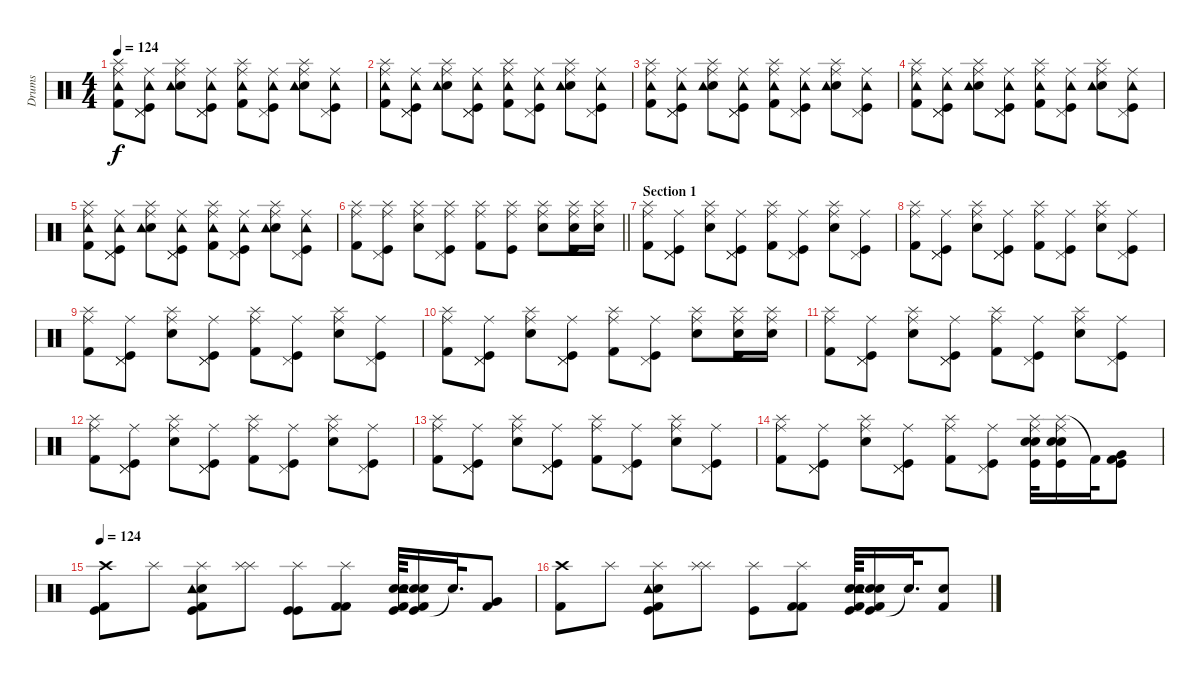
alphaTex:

\track ("Drums " "Drums ") {instrument percussion}
\staff {score}
\articulation defaults
\ts (4 4)
\tempo 124
\clef neutral
\ks c
("Splash (hit)" "Ride (middle)" "Kick (hit) 2" "Tambourine (hit)").8{dy f} ("Pedal Hi-Hat (hit)" "Ride (middle)" "Kick (hit)" "Pedal Hi-Hat (hit)" "Tambourine (hit)").8 ("Splash (hit)" "Ride (middle)" "Electric Snare (hit)" "Tambourine (hit)").8 ("Pedal Hi-Hat (hit)" "Ride (middle)" "Kick (hit)" "Pedal Hi-Hat (hit)" "Tambourine (hit)").8 ("Splash (hit)" "Ride (middle)" "Kick (hit) 2" "Tambourine (hit)").8 ("Pedal Hi-Hat (hit)" "Ride (middle)" "Kick (hit)" "Tambourine (hit)").8 ("Splash (hit)" "Ride (middle)" "Electric Snare (hit)" "Tambourine (hit)").8 ("Pedal Hi-Hat (hit)" "Ride (middle)" "Kick (hit)" "Tambourine (hit)").8 |
("Splash (hit)" "Ride (middle)" "Kick (hit) 2" "Tambourine (hit)").8 ("Pedal Hi-Hat (hit)" "Ride (middle)" "Kick (hit)" "Pedal Hi-Hat (hit)" "Tambourine (hit)").8 ("Splash (hit)" "Ride (middle)" "Electric Snare (hit)" "Tambourine (hit)").8 ("Pedal Hi-Hat (hit)" "Ride (middle)" "Kick (hit)" "Pedal Hi-Hat (hit)" "Tambourine (hit)").8 ("Splash (hit)" "Ride (middle)" "Kick (hit) 2" "Tambourine (hit)").8 ("Pedal Hi-Hat (hit)" "Ride (middle)" "Kick (hit)" "Tambourine (hit)").8 ("Splash (hit)" "Ride (middle)" "Electric Snare (hit)" "Tambourine (hit)").8 ("Pedal Hi-Hat (hit)" "Ride (middle)" "Kick (hit)" "Tambourine (hit)").8 |
("Splash (hit)" "Ride (middle)" "Kick (hit) 2" "Tambourine (hit)").8 ("Pedal Hi-Hat (hit)" "Ride (middle)" "Kick (hit)" "Pedal Hi-Hat (hit)" "Tambourine (hit)").8 ("Splash (hit)" "Ride (middle)" "Electric Snare (hit)" "Tambourine (hit)").8 ("Pedal Hi-Hat (hit)" "Ride (middle)" "Kick (hit)" "Pedal Hi-Hat (hit)" "Tambourine (hit)").8 ("Splash (hit)" "Ride (middle)" "Kick (hit) 2" "Tambourine (hit)").8 ("Pedal Hi-Hat (hit)" "Ride (middle)" "Kick (hit)" "Tambourine (hit)").8 ("Splash (hit)" "Ride (middle)" "Electric Snare (hit)" "Tambourine (hit)").8 ("Pedal Hi-Hat (hit)" "Ride (middle)" "Kick (hit)" "Tambourine (hit)").8 |
("Splash (hit)" "Ride (middle)" "Kick (hit) 2" "Tambourine (hit)").8 ("Pedal Hi-Hat (hit)" "Ride (middle)" "Kick (hit)" "Pedal Hi-Hat (hit)" "Tambourine (hit)").8 ("Splash (hit)" "Ride (middle)" "Electric Snare (hit)" "Tambourine (hit)").8 ("Pedal Hi-Hat (hit)" "Ride (middle)" "Kick (hit)" "Pedal Hi-Hat (hit)" "Tambourine (hit)").8 ("Splash (hit)" "Ride (middle)" "Kick (hit) 2" "Tambourine (hit)").8 ("Pedal Hi-Hat (hit)" "Ride (middle)" "Kick (hit)" "Tambourine (hit)").8 ("Splash (hit)" "Ride (middle)" "Electric Snare (hit)" "Tambourine (hit)").8 ("Pedal Hi-Hat (hit)" "Ride (middle)" "Kick (hit)" "Tambourine (hit)").8 |
("Splash (hit)" "Ride (middle)" "Kick (hit) 2" "Tambourine (hit)").8 ("Pedal Hi-Hat (hit)" "Ride (middle)" "Kick (hit)" "Pedal Hi-Hat (hit)" "Tambourine (hit)").8 ("Splash (hit)" "Ride (middle)" "Electric Snare (hit)" "Tambourine (hit)").8 ("Pedal Hi-Hat (hit)" "Ride (middle)" "Kick (hit)" "Pedal Hi-Hat (hit)" "Tambourine (hit)").8 ("Splash (hit)" "Ride (middle)" "Kick (hit) 2" "Tambourine (hit)").8 ("Pedal Hi-Hat (hit)" "Ride (middle)" "Kick (hit)" "Tambourine (hit)").8 ("Splash (hit)" "Ride (middle)" "Electric Snare (hit)" "Tambourine (hit)").8 ("Pedal Hi-Hat (hit)" "Ride (middle)" "Kick (hit)" "Tambourine (hit)").8 |
\barLineRight lightlight
("Splash (hit)" "Ride (middle)" "Kick (hit) 2").8 ("Splash (hit)" "Ride (middle)" "Kick (hit)" "Pedal Hi-Hat (hit)").8 ("Splash (hit)" "Ride (middle)" "Electric Snare (hit)").8 ("Splash (hit)" "Ride (middle)" "Kick (hit)" "Pedal Hi-Hat (hit)").8 ("Splash (hit)" "Ride (middle)" "Kick (hit) 2").8 ("Splash (hit)" "Ride (middle)" "Kick (hit)").8 ("Splash (hit)" "Ride (middle)" "Electric Snare (hit)").8 ("Splash (hit)" "Ride (middle)" "Kick (hit)" "Electric Snare (hit)").16 ("Splash (hit)" "Ride (middle)" "Electric Snare (hit)").16 |
\section ("" "Section 1")
("Splash (hit)" "Ride (middle)" "Kick (hit) 2").8 ("Pedal Hi-Hat (hit)" "Ride (middle)" "Kick (hit)" "Pedal Hi-Hat (hit)").8 ("Splash (hit)" "Ride (middle)" "Electric Snare (hit)").8 ("Pedal Hi-Hat (hit)" "Ride (middle)" "Kick (hit)" "Pedal Hi-Hat (hit)").8 ("Splash (hit)" "Ride (middle)" "Kick (hit) 2").8 ("Pedal Hi-Hat (hit)" "Ride (middle)" "Kick (hit)").8 ("Splash (hit)" "Ride (middle)" "Electric Snare (hit)").8 ("Pedal Hi-Hat (hit)" "Ride (middle)" "Kick (hit)").8 |
("Splash (hit)" "Ride (middle)" "Kick (hit) 2").8 ("Pedal Hi-Hat (hit)" "Ride (middle)" "Kick (hit)" "Pedal Hi-Hat (hit)").8 ("Splash (hit)" "Ride (middle)" "Electric Snare (hit)").8 ("Pedal Hi-Hat (hit)" "Ride (middle)" "Kick (hit)" "Pedal Hi-Hat (hit)").8 ("Splash (hit)" "Ride (middle)" "Kick (hit) 2").8 ("Pedal Hi-Hat (hit)" "Ride (middle)" "Kick (hit)").8 ("Splash (hit)" "Ride (middle)" "Electric Snare (hit)").8 ("Pedal Hi-Hat (hit)" "Ride (middle)" "Kick (hit)").8 |
("Splash (hit)" "Ride (middle)" "Kick (hit) 2").8 ("Pedal Hi-Hat (hit)" "Ride (middle)" "Kick (hit)" "Pedal Hi-Hat (hit)").8 ("Splash (hit)" "Ride (middle)" "Electric Snare (hit)").8 ("Pedal Hi-Hat (hit)" "Ride (middle)" "Kick (hit)" "Pedal Hi-Hat (hit)").8 ("Splash (hit)" "Ride (middle)" "Kick (hit) 2").8 ("Pedal Hi-Hat (hit)" "Ride (middle)" "Kick (hit)").8 ("Splash (hit)" "Ride (middle)" "Electric Snare (hit)").8 ("Pedal Hi-Hat (hit)" "Ride (middle)" "Kick (hit)").8 |
("Splash (hit)" "Ride (middle)" "Kick (hit) 2").8 ("Pedal Hi-Hat (hit)" "Ride (middle)" "Kick (hit)" "Pedal Hi-Hat (hit)").8 ("Splash (hit)" "Ride (middle)" "Electric Snare (hit)").8 ("Pedal Hi-Hat (hit)" "Ride (middle)" "Kick (hit)" "Pedal Hi-Hat (hit)").8 ("Splash (hit)" "Ride (middle)" "Kick (hit) 2").8 ("Pedal Hi-Hat (hit)" "Ride (middle)" "Kick (hit)").8 ("Splash (hit)" "Ride (middle)" "Electric Snare (hit)").8 ("Splash (hit)" "Ride (middle)" "Kick (hit)" "Electric Snare (hit)").16 ("Splash (hit)" "Ride (middle)" "Electric Snare (hit)").16 |
("Splash (hit)" "Ride (middle)" "Kick (hit) 2").8 ("Pedal Hi-Hat (hit)" "Ride (middle)" "Kick (hit)" "Pedal Hi-Hat (hit)").8 ("Splash (hit)" "Ride (middle)" "Electric Snare (hit)").8 ("Pedal Hi-Hat (hit)" "Ride (middle)" "Kick (hit)" "Pedal Hi-Hat (hit)").8 ("Splash (hit)" "Ride (middle)" "Kick (hit) 2").8 ("Pedal Hi-Hat (hit)" "Ride (middle)" "Kick (hit)").8 ("Splash (hit)" "Ride (middle)" "Electric Snare (hit)").8 ("Pedal Hi-Hat (hit)" "Ride (middle)" "Kick (hit)").8 |
("Splash (hit)" "Ride (middle)" "Kick (hit) 2").8 ("Pedal Hi-Hat (hit)" "Ride (middle)" "Kick (hit)" "Pedal Hi-Hat (hit)").8 ("Splash (hit)" "Ride (middle)" "Electric Snare (hit)").8 ("Pedal Hi-Hat (hit)" "Ride (middle)" "Kick (hit)" "Pedal Hi-Hat (hit)").8 ("Splash (hit)" "Ride (middle)" "Kick (hit) 2").8 ("Pedal Hi-Hat (hit)" "Ride (middle)" "Kick (hit)").8 ("Splash (hit)" "Ride (middle)" "Electric Snare (hit)").8 ("Pedal Hi-Hat (hit)" "Ride (middle)" "Kick (hit)").8 |
("Splash (hit)" "Ride (middle)" "Kick (hit) 2").8 ("Pedal Hi-Hat (hit)" "Ride (middle)" "Kick (hit)" "Pedal Hi-Hat (hit)").8 ("Splash (hit)" "Ride (middle)" "Electric Snare (hit)").8 ("Pedal Hi-Hat (hit)" "Ride (middle)" "Kick (hit)" "Pedal Hi-Hat (hit)").8 ("Splash (hit)" "Ride (middle)" "Kick (hit) 2").8 ("Pedal Hi-Hat (hit)" "Ride (middle)" "Kick (hit)").8 ("Splash (hit)" "Ride (middle)" "Electric Snare (hit)").8 ("Pedal Hi-Hat (hit)" "Ride (middle)" "Kick (hit)").8 |
("Splash (hit)" "Ride (middle)" "Kick (hit) 2").8 ("Pedal Hi-Hat (hit)" "Ride (middle)" "Kick (hit)" "Pedal Hi-Hat (hit)").8 ("Splash (hit)" "Ride (middle)" "Electric Snare (hit)").8 ("Pedal Hi-Hat (hit)" "Ride (middle)" "Kick (hit)" "Pedal Hi-Hat (hit)").8 ("Splash (hit)" "Ride (middle)" "Kick (hit) 2").8 ("Pedal Hi-Hat (hit)" "Ride (middle)" "Kick (hit)").8 ("Splash (hit)" "Ride (middle)" "Kick (hit)" "Electric Snare (hit)" "Snare (hit) 2").32 ("Splash (hit)" "Ride (middle)" "Kick (hit)" "Electric Snare (hit)" "Snare (hit) 2").16 "Kick (hit) 2"{t}.32 ("Very Low Tom (hit)" "Kick (hit)" "Kick (hit) 2").8 |
\tempo 124
("Kick (hit) 2" "Kick (hit)" "Crash high (hit)").8 "Splash (hit)".8 ("Kick (hit)" "Kick (hit) 2" "Electric Snare (hit)" "Tambourine (hit)" "Splash (hit)").8 ("Splash (hit)" "Splash (hit)").8 ("Splash (hit)" "Kick (hit)" "Kick (hit)").8 ("Splash (hit)" "Kick (hit) 2" "Kick (hit) 2").8 ("Kick (hit)" "Kick (hit) 2" "Electric Snare (hit)" "Tambourine (hit)" "Snare (hit) 2").64 ("Kick (hit)" "Kick (hit) 2" "Electric Snare (hit)" "Snare (hit) 2").16 "Snare (hit)"{t}.32{d} ("Very Low Tom (hit)" "Kick (hit) 2").8 |
("Kick (hit) 2" "Crash high (hit)").8 "Splash (hit)".8 ("Kick (hit)" "Kick (hit) 2" "Electric Snare (hit)" "Tambourine (hit)" "Splash (hit)").8 ("Splash (hit)" "Splash (hit)").8 ("Splash (hit)" "Kick (hit)").8 ("Splash (hit)" "Kick (hit) 2" "Kick (hit) 2").8 ("Kick (hit)" "Kick (hit) 2" "Electric Snare (hit)" "Tambourine (hit)" "Snare (hit) 2").64 ("Kick (hit)" "Kick (hit) 2" "Electric Snare (hit)" "Snare (hit) 2").16 "Snare (hit)"{t}.32{d} ("Electric Snare (hit)" "Kick (hit) 2").8
